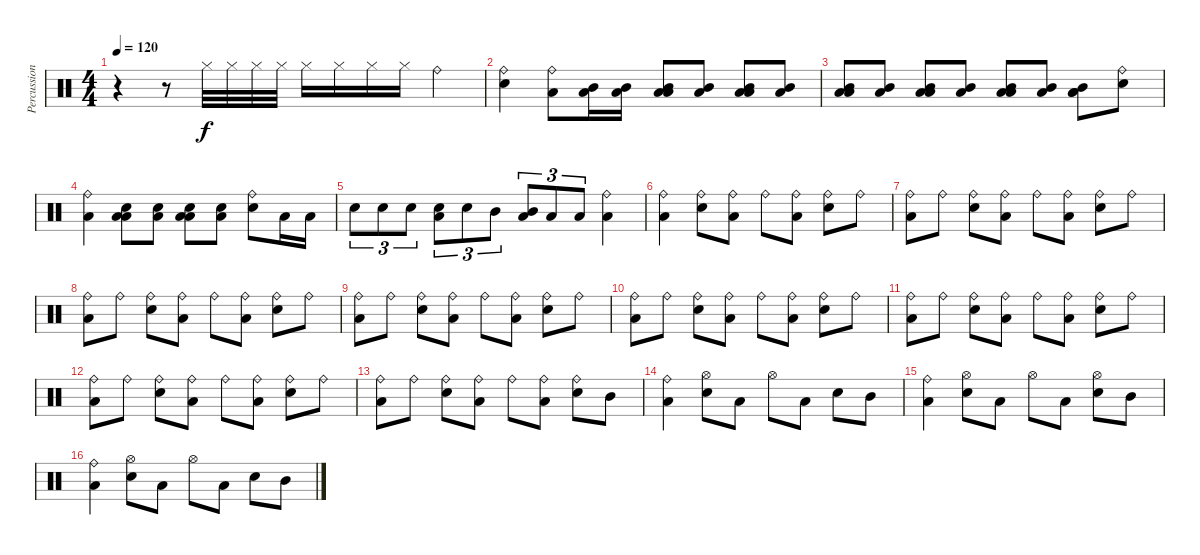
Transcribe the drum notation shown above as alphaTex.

\track ("Percussion" "Percussion") {instrument percussion}
\staff {score}
\articulation defaults
\ts (4 4)
\tempo 120
\clef neutral
\ks c
r.4{dy f} r.8 "Hi-Hat (closed)".32 "Hi-Hat (closed)".32 "Hi-Hat (closed)".32 "Hi-Hat (closed)".32 "Hi-Hat (closed)".16 "Hi-Hat (closed)".16 "Hi-Hat (closed)".16 "Hi-Hat (closed)".16 "Ride (bell)".4 |
("Ride (bell)" "Snare (hit) 2").4 ("Ride (bell)" "Low Floor Tom (hit)").8 ("Mid Tom (hit)" "Low Tom (hit)").16 ("Mid Tom (hit)" "Low Tom (hit)").16 ("Mid Tom (hit)" "Low Tom (hit)" "Low Floor Tom (hit)").8 ("Mid Tom (hit)" "Low Tom (hit)").8 ("Mid Tom (hit)" "Low Tom (hit)" "Low Floor Tom (hit)").8 ("Mid Tom (hit)" "Low Tom (hit)").8 |
("Mid Tom (hit)" "Low Tom (hit)" "Low Floor Tom (hit)").8 ("Mid Tom (hit)" "Low Tom (hit)").8 ("Mid Tom (hit)" "Low Tom (hit)" "Low Floor Tom (hit)").8 ("Mid Tom (hit)" "Low Tom (hit)").8 ("Mid Tom (hit)" "Low Tom (hit)" "Low Floor Tom (hit)").8 ("Mid Tom (hit)" "Low Tom (hit)").8 ("Mid Tom (hit)" "Low Tom (hit)" "Low Floor Tom (hit)").8 ("Ride (bell)" "Snare (hit) 2").8 |
("Ride (bell)" "Low Floor Tom (hit)").4 ("Snare (hit) 2" "Low Tom (hit)" "Low Floor Tom (hit)").8 ("Snare (hit) 2" "Low Tom (hit)").8 ("Snare (hit) 2" "Low Tom (hit)" "Low Floor Tom (hit)").8 ("Snare (hit) 2" "Low Tom (hit)").8 ("Ride (bell)" "Snare (hit) 2").8 "Low Floor Tom (hit)".16 "Low Floor Tom (hit)".16 |
"Snare (hit) 2".8{tu (3 2)} "Snare (hit) 2".8{tu (3 2)} "Snare (hit) 2".8{tu (3 2)} ("Snare (hit) 2" "Low Floor Tom (hit)").8{tu (3 2)} "Snare (hit) 2".8{tu (3 2)} "Mid Tom (hit)".8{tu (3 2)} ("Mid Tom (hit)" "Low Floor Tom (hit)").8{tu (3 2)} "Low Tom (hit)".8{tu (3 2)} "Low Tom (hit)".8{tu (3 2)} ("Ride (bell)" "Low Floor Tom (hit)").4 |
("Ride (bell)" "Low Floor Tom (hit)").4 ("Ride (bell)" "Snare (hit) 2").8 ("Ride (bell)" "Low Floor Tom (hit)").8 "Ride (bell)".8 ("Ride (bell)" "Low Floor Tom (hit)").8 ("Ride (bell)" "Snare (hit) 2").8 "Ride (bell)".8 |
("Ride (bell)" "Low Floor Tom (hit)").8 "Ride (bell)".8 ("Ride (bell)" "Snare (hit) 2").8 ("Ride (bell)" "Low Floor Tom (hit)").8 "Ride (bell)".8 ("Ride (bell)" "Low Floor Tom (hit)").8 ("Ride (bell)" "Snare (hit) 2").8 "Ride (bell)".8 |
("Ride (bell)" "Low Floor Tom (hit)").8 "Ride (bell)".8 ("Ride (bell)" "Snare (hit) 2").8 ("Ride (bell)" "Low Floor Tom (hit)").8 "Ride (bell)".8 ("Ride (bell)" "Low Floor Tom (hit)").8 ("Ride (bell)" "Snare (hit) 2").8 "Ride (bell)".8 |
("Ride (bell)" "Low Floor Tom (hit)").8 "Ride (bell)".8 ("Ride (bell)" "Snare (hit) 2").8 ("Ride (bell)" "Low Floor Tom (hit)").8 "Ride (bell)".8 ("Ride (bell)" "Low Floor Tom (hit)").8 ("Ride (bell)" "Snare (hit) 2").8 "Ride (bell)".8 |
("Ride (bell)" "Low Floor Tom (hit)").8 "Ride (bell)".8 ("Ride (bell)" "Snare (hit) 2").8 ("Ride (bell)" "Low Floor Tom (hit)").8 "Ride (bell)".8 ("Ride (bell)" "Low Floor Tom (hit)").8 ("Ride (bell)" "Snare (hit) 2").8 "Ride (bell)".8 |
("Ride (bell)" "Low Floor Tom (hit)").8 "Ride (bell)".8 ("Ride (bell)" "Snare (hit) 2").8 ("Ride (bell)" "Low Floor Tom (hit)").8 "Ride (bell)".8 ("Ride (bell)" "Low Floor Tom (hit)").8 ("Ride (bell)" "Snare (hit) 2").8 "Ride (bell)".8 |
("Ride (bell)" "Low Floor Tom (hit)").8 "Ride (bell)".8 ("Ride (bell)" "Snare (hit) 2").8 ("Ride (bell)" "Low Floor Tom (hit)").8 "Ride (bell)".8 ("Ride (bell)" "Low Floor Tom (hit)").8 ("Ride (bell)" "Snare (hit) 2").8 "Ride (bell)".8 |
("Ride (bell)" "Low Floor Tom (hit)").8 "Ride (bell)".8 ("Ride (bell)" "Snare (hit) 2").8 ("Ride (bell)" "Low Floor Tom (hit)").8 "Ride (bell)".8 ("Ride (bell)" "Low Floor Tom (hit)").8 ("Ride (bell)" "Snare (hit) 2").8 "Mid Tom (hit)".8 |
("Ride (bell)" "Low Floor Tom (hit)").4 ("Hi-Hat (open)" "Snare (hit) 2").8 "Low Floor Tom (hit)".8 "Hi-Hat (open)".8 "Low Floor Tom (hit)".8 "Snare (hit) 2".8 "Mid Tom (hit)".8 |
("Ride (bell)" "Low Floor Tom (hit)").4 ("Hi-Hat (open)" "Snare (hit) 2").8 "Low Floor Tom (hit)".8 "Hi-Hat (open)".8 "Low Floor Tom (hit)".8 ("Hi-Hat (open)" "Snare (hit) 2").8 "Mid Tom (hit)".8 |
("Ride (bell)" "Low Floor Tom (hit)").4 ("Hi-Hat (open)" "Snare (hit) 2").8 "Low Floor Tom (hit)".8 "Hi-Hat (open)".8 "Low Floor Tom (hit)".8 "Snare (hit) 2".8 "Mid Tom (hit)".8
